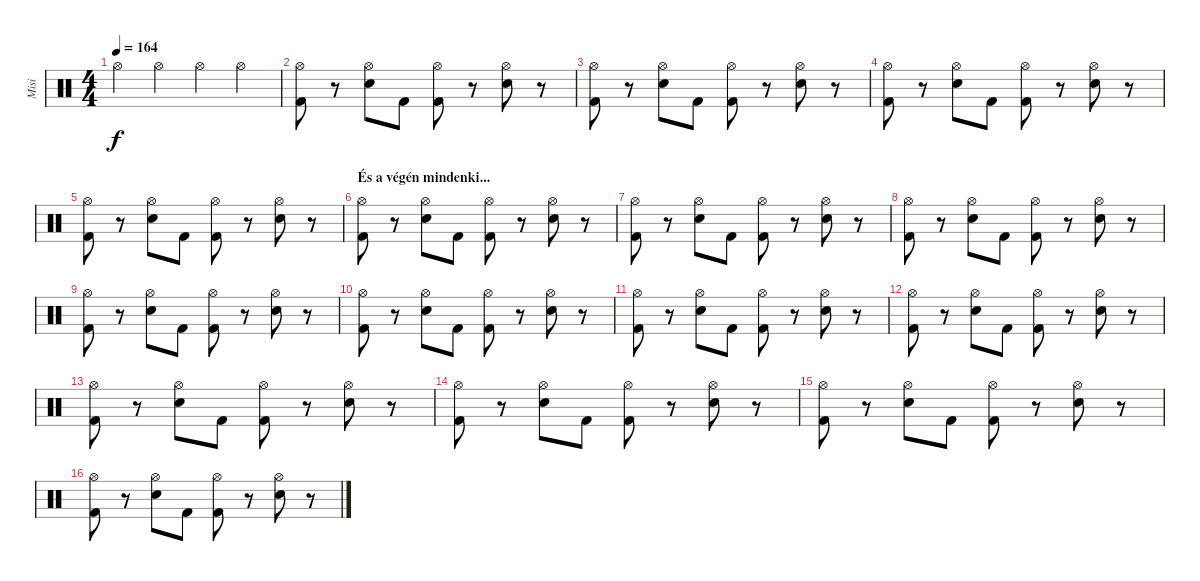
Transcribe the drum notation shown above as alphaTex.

\track ("Misi" "Misi") {instrument percussion}
\staff {score}
\articulation defaults
\ts (4 4)
\tempo 164
\clef neutral
\ks c "Hi-Hat (open)".4{dy f} "Hi-Hat (open)".4 "Hi-Hat (open)".4 "Hi-Hat (open)".4
|
("Hi-Hat (open)" "Kick (hit) 2").8 r.8 ("Hi-Hat (open)" "Electric Snare (hit)").8 "Kick (hit) 2".8 ("Hi-Hat (open)" "Kick (hit) 2").8 r.8 ("Hi-Hat (open)" "Electric Snare (hit)").8 r.8 |
("Hi-Hat (open)" "Kick (hit) 2").8 r.8 ("Hi-Hat (open)" "Electric Snare (hit)").8 "Kick (hit) 2".8 ("Hi-Hat (open)" "Kick (hit) 2").8 r.8 ("Hi-Hat (open)" "Electric Snare (hit)").8 r.8 |
("Hi-Hat (open)" "Kick (hit) 2").8 r.8 ("Hi-Hat (open)" "Electric Snare (hit)").8 "Kick (hit) 2".8 ("Hi-Hat (open)" "Kick (hit) 2").8 r.8 ("Hi-Hat (open)" "Electric Snare (hit)").8 r.8 |
("Hi-Hat (open)" "Kick (hit) 2").8 r.8 ("Hi-Hat (open)" "Electric Snare (hit)").8 "Kick (hit) 2".8 ("Hi-Hat (open)" "Kick (hit) 2").8 r.8 ("Hi-Hat (open)" "Electric Snare (hit)").8 r.8 |
\section ("" "És a végén mindenki...")
("Hi-Hat (open)" "Kick (hit) 2").8 r.8 ("Hi-Hat (open)" "Electric Snare (hit)").8 "Kick (hit) 2".8 ("Hi-Hat (open)" "Kick (hit) 2").8 r.8 ("Hi-Hat (open)" "Electric Snare (hit)").8 r.8 |
("Hi-Hat (open)" "Kick (hit) 2").8 r.8 ("Hi-Hat (open)" "Electric Snare (hit)").8 "Kick (hit) 2".8 ("Hi-Hat (open)" "Kick (hit) 2").8 r.8 ("Hi-Hat (open)" "Electric Snare (hit)").8 r.8 |
("Hi-Hat (open)" "Kick (hit) 2").8 r.8 ("Hi-Hat (open)" "Electric Snare (hit)").8 "Kick (hit) 2".8 ("Hi-Hat (open)" "Kick (hit) 2").8 r.8 ("Hi-Hat (open)" "Electric Snare (hit)").8 r.8 |
("Hi-Hat (open)" "Kick (hit) 2").8 r.8 ("Hi-Hat (open)" "Electric Snare (hit)").8 "Kick (hit) 2".8 ("Hi-Hat (open)" "Kick (hit) 2").8 r.8 ("Hi-Hat (open)" "Electric Snare (hit)").8 r.8 |
("Hi-Hat (open)" "Kick (hit) 2").8 r.8 ("Hi-Hat (open)" "Electric Snare (hit)").8 "Kick (hit) 2".8 ("Hi-Hat (open)" "Kick (hit) 2").8 r.8 ("Hi-Hat (open)" "Electric Snare (hit)").8 r.8 |
("Hi-Hat (open)" "Kick (hit) 2").8 r.8 ("Hi-Hat (open)" "Electric Snare (hit)").8 "Kick (hit) 2".8 ("Hi-Hat (open)" "Kick (hit) 2").8 r.8 ("Hi-Hat (open)" "Electric Snare (hit)").8 r.8 |
("Hi-Hat (open)" "Kick (hit) 2").8 r.8 ("Hi-Hat (open)" "Electric Snare (hit)").8 "Kick (hit) 2".8 ("Hi-Hat (open)" "Kick (hit) 2").8 r.8 ("Hi-Hat (open)" "Electric Snare (hit)").8 r.8 |
("Hi-Hat (open)" "Kick (hit) 2").8 r.8 ("Hi-Hat (open)" "Electric Snare (hit)").8 "Kick (hit) 2".8 ("Hi-Hat (open)" "Kick (hit) 2").8 r.8 ("Hi-Hat (open)" "Electric Snare (hit)").8 r.8 |
("Hi-Hat (open)" "Kick (hit) 2").8 r.8 ("Hi-Hat (open)" "Electric Snare (hit)").8 "Kick (hit) 2".8 ("Hi-Hat (open)" "Kick (hit) 2").8 r.8 ("Hi-Hat (open)" "Electric Snare (hit)").8 r.8 |
("Hi-Hat (open)" "Kick (hit) 2").8 r.8 ("Hi-Hat (open)" "Electric Snare (hit)").8 "Kick (hit) 2".8 ("Hi-Hat (open)" "Kick (hit) 2").8 r.8 ("Hi-Hat (open)" "Electric Snare (hit)").8 r.8 |
("Hi-Hat (open)" "Kick (hit) 2").8 r.8 ("Hi-Hat (open)" "Electric Snare (hit)").8 "Kick (hit) 2".8 ("Hi-Hat (open)" "Kick (hit) 2").8 r.8 ("Hi-Hat (open)" "Electric Snare (hit)").8 r.8
